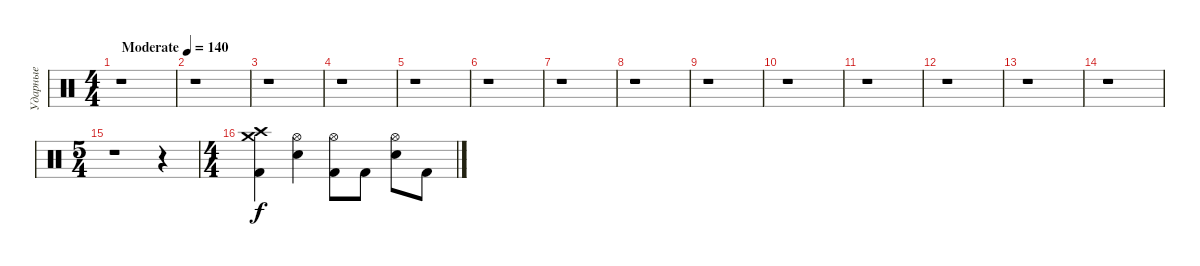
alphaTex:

\track ("Ударные" "Ударные") {instrument percussion}
\staff {score}
\articulation defaults
\ts (4 4)
\tempo (140 "Moderate")
\clef neutral
\ks c
r.1{dy f} |
r.1 |
r.1 |
r.1 |
r.1 |
r.1 |
r.1 |
r.1 |
r.1 |
r.1 |
r.1 |
r.1 |
r.1 |
r.1 |
\ts (5 4)
r.1 r.4 |
\ts (4 4)
("Crash medium (hit)" "Crash high (hit)" "Kick (hit) 2").4 ("Hi-Hat (open)" "Electric Snare (hit)").4 ("Hi-Hat (open)" "Kick (hit) 2").8 "Kick (hit) 2".8 ("Hi-Hat (open)" "Electric Snare (hit)").8 "Kick (hit) 2".8
